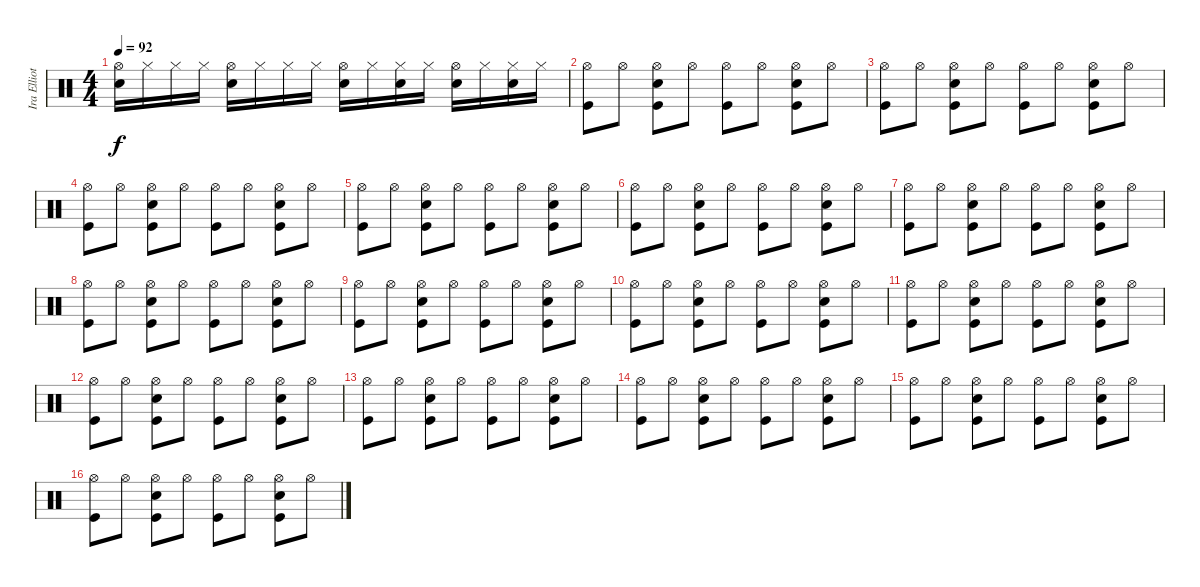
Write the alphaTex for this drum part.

\track ("Ira Elliot" "Ira Elliot") {instrument percussion}
\staff {score}
\articulation defaults
\ts (4 4)
\tempo 92
\clef neutral
\ks c
("Snare (hit) 2" "Hi-Hat (open)").16{dy f} "Hi-Hat (closed)".16 "Hi-Hat (closed)".16 "Hi-Hat (closed)".16 ("Snare (hit) 2" "Hi-Hat (open)").16 "Hi-Hat (closed)".16 "Hi-Hat (closed)".16 "Hi-Hat (closed)".16 ("Snare (hit) 2" "Hi-Hat (open)").16 "Hi-Hat (closed)".16 ("Snare (hit) 2" "Hi-Hat (closed)").16 "Hi-Hat (closed)".16 ("Snare (hit) 2" "Hi-Hat (open)").16 "Hi-Hat (closed)".16 ("Snare (hit) 2" "Hi-Hat (closed)").16 "Hi-Hat (closed)".16 |
("Hi-Hat (open)" "Kick (hit)").8 "Hi-Hat (open)".8 ("Snare (hit) 2" "Hi-Hat (open)" "Kick (hit)").8 "Hi-Hat (open)".8 ("Hi-Hat (open)" "Kick (hit)").8 "Hi-Hat (open)".8 ("Snare (hit) 2" "Hi-Hat (open)" "Kick (hit)").8 "Hi-Hat (open)".8 |
("Hi-Hat (open)" "Kick (hit)").8 "Hi-Hat (open)".8 ("Snare (hit) 2" "Hi-Hat (open)" "Kick (hit)").8 "Hi-Hat (open)".8 ("Hi-Hat (open)" "Kick (hit)").8 "Hi-Hat (open)".8 ("Snare (hit) 2" "Hi-Hat (open)" "Kick (hit)").8 "Hi-Hat (open)".8 |
("Hi-Hat (open)" "Kick (hit)").8 "Hi-Hat (open)".8 ("Snare (hit) 2" "Hi-Hat (open)" "Kick (hit)").8 "Hi-Hat (open)".8 ("Hi-Hat (open)" "Kick (hit)").8 "Hi-Hat (open)".8 ("Snare (hit) 2" "Hi-Hat (open)" "Kick (hit)").8 "Hi-Hat (open)".8 |
("Hi-Hat (open)" "Kick (hit)").8 "Hi-Hat (open)".8 ("Snare (hit) 2" "Hi-Hat (open)" "Kick (hit)").8 "Hi-Hat (open)".8 ("Hi-Hat (open)" "Kick (hit)").8 "Hi-Hat (open)".8 ("Snare (hit) 2" "Hi-Hat (open)" "Kick (hit)").8 "Hi-Hat (open)".8 |
("Hi-Hat (open)" "Kick (hit)").8 "Hi-Hat (open)".8 ("Snare (hit) 2" "Hi-Hat (open)" "Kick (hit)").8 "Hi-Hat (open)".8 ("Hi-Hat (open)" "Kick (hit)").8 "Hi-Hat (open)".8 ("Snare (hit) 2" "Hi-Hat (open)" "Kick (hit)").8 "Hi-Hat (open)".8 |
("Hi-Hat (open)" "Kick (hit)").8 "Hi-Hat (open)".8 ("Snare (hit) 2" "Hi-Hat (open)" "Kick (hit)").8 "Hi-Hat (open)".8 ("Hi-Hat (open)" "Kick (hit)").8 "Hi-Hat (open)".8 ("Snare (hit) 2" "Hi-Hat (open)" "Kick (hit)").8 "Hi-Hat (open)".8 |
("Hi-Hat (open)" "Kick (hit)").8 "Hi-Hat (open)".8 ("Snare (hit) 2" "Hi-Hat (open)" "Kick (hit)").8 "Hi-Hat (open)".8 ("Hi-Hat (open)" "Kick (hit)").8 "Hi-Hat (open)".8 ("Snare (hit) 2" "Hi-Hat (open)" "Kick (hit)").8 "Hi-Hat (open)".8 |
("Hi-Hat (open)" "Kick (hit)").8 "Hi-Hat (open)".8 ("Snare (hit) 2" "Hi-Hat (open)" "Kick (hit)").8 "Hi-Hat (open)".8 ("Hi-Hat (open)" "Kick (hit)").8 "Hi-Hat (open)".8 ("Snare (hit) 2" "Hi-Hat (open)" "Kick (hit)").8 "Hi-Hat (open)".8 |
("Hi-Hat (open)" "Kick (hit)").8 "Hi-Hat (open)".8 ("Snare (hit) 2" "Hi-Hat (open)" "Kick (hit)").8 "Hi-Hat (open)".8 ("Hi-Hat (open)" "Kick (hit)").8 "Hi-Hat (open)".8 ("Snare (hit) 2" "Hi-Hat (open)" "Kick (hit)").8 "Hi-Hat (open)".8 |
("Hi-Hat (open)" "Kick (hit)").8 "Hi-Hat (open)".8 ("Snare (hit) 2" "Hi-Hat (open)" "Kick (hit)").8 "Hi-Hat (open)".8 ("Hi-Hat (open)" "Kick (hit)").8 "Hi-Hat (open)".8 ("Snare (hit) 2" "Hi-Hat (open)" "Kick (hit)").8 "Hi-Hat (open)".8 |
("Hi-Hat (open)" "Kick (hit)").8 "Hi-Hat (open)".8 ("Snare (hit) 2" "Hi-Hat (open)" "Kick (hit)").8 "Hi-Hat (open)".8 ("Hi-Hat (open)" "Kick (hit)").8 "Hi-Hat (open)".8 ("Snare (hit) 2" "Hi-Hat (open)" "Kick (hit)").8 "Hi-Hat (open)".8 |
("Hi-Hat (open)" "Kick (hit)").8 "Hi-Hat (open)".8 ("Snare (hit) 2" "Hi-Hat (open)" "Kick (hit)").8 "Hi-Hat (open)".8 ("Hi-Hat (open)" "Kick (hit)").8 "Hi-Hat (open)".8 ("Snare (hit) 2" "Hi-Hat (open)" "Kick (hit)").8 "Hi-Hat (open)".8 |
("Hi-Hat (open)" "Kick (hit)").8 "Hi-Hat (open)".8 ("Snare (hit) 2" "Hi-Hat (open)" "Kick (hit)").8 "Hi-Hat (open)".8 ("Hi-Hat (open)" "Kick (hit)").8 "Hi-Hat (open)".8 ("Snare (hit) 2" "Hi-Hat (open)" "Kick (hit)").8 "Hi-Hat (open)".8 |
("Hi-Hat (open)" "Kick (hit)").8 "Hi-Hat (open)".8 ("Snare (hit) 2" "Hi-Hat (open)" "Kick (hit)").8 "Hi-Hat (open)".8 ("Hi-Hat (open)" "Kick (hit)").8 "Hi-Hat (open)".8 ("Snare (hit) 2" "Hi-Hat (open)" "Kick (hit)").8 "Hi-Hat (open)".8 |
("Hi-Hat (open)" "Kick (hit)").8 "Hi-Hat (open)".8 ("Snare (hit) 2" "Hi-Hat (open)" "Kick (hit)").8 "Hi-Hat (open)".8 ("Hi-Hat (open)" "Kick (hit)").8 "Hi-Hat (open)".8 ("Snare (hit) 2" "Hi-Hat (open)" "Kick (hit)").8 "Hi-Hat (open)".8
